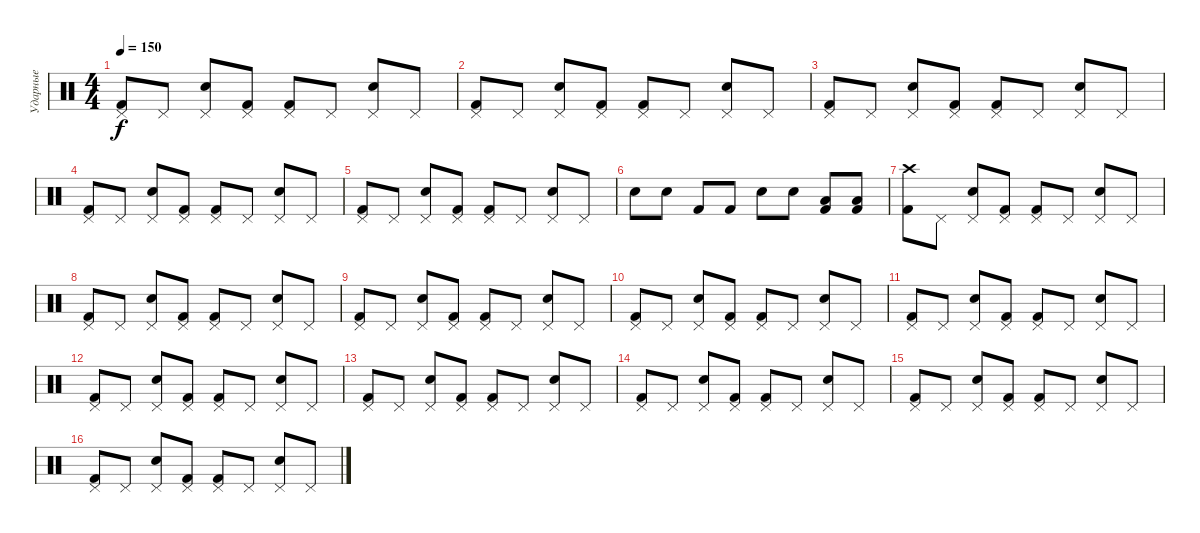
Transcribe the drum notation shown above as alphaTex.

\track ("Ударные" "Ударные") {instrument percussion}
\staff {score}
\articulation defaults
\ts (4 4)
\tempo 150
\clef neutral
\ks c
("Pedal Hi-Hat (hit)" "Kick (hit) 2").8{dy f} "Pedal Hi-Hat (hit)".8 ("Pedal Hi-Hat (hit)" "Snare (hit) 2").8 ("Pedal Hi-Hat (hit)" "Kick (hit) 2").8 ("Pedal Hi-Hat (hit)" "Kick (hit) 2").8 "Pedal Hi-Hat (hit)".8 ("Pedal Hi-Hat (hit)" "Snare (hit) 2").8 "Pedal Hi-Hat (hit)".8 |
("Pedal Hi-Hat (hit)" "Kick (hit) 2").8 "Pedal Hi-Hat (hit)".8 ("Pedal Hi-Hat (hit)" "Snare (hit) 2").8 ("Pedal Hi-Hat (hit)" "Kick (hit) 2").8 ("Pedal Hi-Hat (hit)" "Kick (hit) 2").8 "Pedal Hi-Hat (hit)".8 ("Pedal Hi-Hat (hit)" "Snare (hit) 2").8 "Pedal Hi-Hat (hit)".8 |
("Pedal Hi-Hat (hit)" "Kick (hit) 2").8 "Pedal Hi-Hat (hit)".8 ("Pedal Hi-Hat (hit)" "Snare (hit) 2").8 ("Pedal Hi-Hat (hit)" "Kick (hit) 2").8 ("Pedal Hi-Hat (hit)" "Kick (hit) 2").8 "Pedal Hi-Hat (hit)".8 ("Pedal Hi-Hat (hit)" "Snare (hit) 2").8 "Pedal Hi-Hat (hit)".8 |
("Pedal Hi-Hat (hit)" "Kick (hit) 2").8 "Pedal Hi-Hat (hit)".8 ("Pedal Hi-Hat (hit)" "Snare (hit) 2").8 ("Pedal Hi-Hat (hit)" "Kick (hit) 2").8 ("Pedal Hi-Hat (hit)" "Kick (hit) 2").8 "Pedal Hi-Hat (hit)".8 ("Pedal Hi-Hat (hit)" "Snare (hit) 2").8 "Pedal Hi-Hat (hit)".8 |
("Pedal Hi-Hat (hit)" "Kick (hit) 2").8 "Pedal Hi-Hat (hit)".8 ("Pedal Hi-Hat (hit)" "Snare (hit) 2").8 ("Pedal Hi-Hat (hit)" "Kick (hit) 2").8 ("Pedal Hi-Hat (hit)" "Kick (hit) 2").8 "Pedal Hi-Hat (hit)".8 ("Pedal Hi-Hat (hit)" "Snare (hit) 2").8 "Pedal Hi-Hat (hit)".8 |
"Snare (hit) 2".8 "Snare (hit) 2".8 "Kick (hit) 2".8 "Kick (hit) 2".8 "Snare (hit) 2".8 "Snare (hit) 2".8 ("Low Floor Tom (hit)" "Kick (hit) 2").8 ("Low Floor Tom (hit)" "Kick (hit) 2").8 |
("Crash high (hit)" "Kick (hit) 2").8{volume 10} "Pedal Hi-Hat (hit)".8 ("Pedal Hi-Hat (hit)" "Snare (hit) 2").8 ("Pedal Hi-Hat (hit)" "Kick (hit) 2").8 ("Pedal Hi-Hat (hit)" "Kick (hit) 2").8 "Pedal Hi-Hat (hit)".8 ("Pedal Hi-Hat (hit)" "Snare (hit) 2").8 "Pedal Hi-Hat (hit)".8 |
("Pedal Hi-Hat (hit)" "Kick (hit) 2").8 "Pedal Hi-Hat (hit)".8 ("Pedal Hi-Hat (hit)" "Snare (hit) 2").8 ("Pedal Hi-Hat (hit)" "Kick (hit) 2").8 ("Pedal Hi-Hat (hit)" "Kick (hit) 2").8 "Pedal Hi-Hat (hit)".8 ("Pedal Hi-Hat (hit)" "Snare (hit) 2").8 "Pedal Hi-Hat (hit)".8 |
("Pedal Hi-Hat (hit)" "Kick (hit) 2").8 "Pedal Hi-Hat (hit)".8 ("Pedal Hi-Hat (hit)" "Snare (hit) 2").8 ("Pedal Hi-Hat (hit)" "Kick (hit) 2").8 ("Pedal Hi-Hat (hit)" "Kick (hit) 2").8 "Pedal Hi-Hat (hit)".8 ("Pedal Hi-Hat (hit)" "Snare (hit) 2").8 "Pedal Hi-Hat (hit)".8 |
("Pedal Hi-Hat (hit)" "Kick (hit) 2").8 "Pedal Hi-Hat (hit)".8 ("Pedal Hi-Hat (hit)" "Snare (hit) 2").8 ("Pedal Hi-Hat (hit)" "Kick (hit) 2").8 ("Pedal Hi-Hat (hit)" "Kick (hit) 2").8 "Pedal Hi-Hat (hit)".8 ("Pedal Hi-Hat (hit)" "Snare (hit) 2").8 "Pedal Hi-Hat (hit)".8 |
("Pedal Hi-Hat (hit)" "Kick (hit) 2").8 "Pedal Hi-Hat (hit)".8 ("Pedal Hi-Hat (hit)" "Snare (hit) 2").8 ("Pedal Hi-Hat (hit)" "Kick (hit) 2").8 ("Pedal Hi-Hat (hit)" "Kick (hit) 2").8 "Pedal Hi-Hat (hit)".8 ("Pedal Hi-Hat (hit)" "Snare (hit) 2").8 "Pedal Hi-Hat (hit)".8 |
("Pedal Hi-Hat (hit)" "Kick (hit) 2").8 "Pedal Hi-Hat (hit)".8 ("Pedal Hi-Hat (hit)" "Snare (hit) 2").8 ("Pedal Hi-Hat (hit)" "Kick (hit) 2").8 ("Pedal Hi-Hat (hit)" "Kick (hit) 2").8 "Pedal Hi-Hat (hit)".8 ("Pedal Hi-Hat (hit)" "Snare (hit) 2").8 "Pedal Hi-Hat (hit)".8 |
("Pedal Hi-Hat (hit)" "Kick (hit) 2").8 "Pedal Hi-Hat (hit)".8 ("Pedal Hi-Hat (hit)" "Snare (hit) 2").8 ("Pedal Hi-Hat (hit)" "Kick (hit) 2").8 ("Pedal Hi-Hat (hit)" "Kick (hit) 2").8 "Pedal Hi-Hat (hit)".8 ("Pedal Hi-Hat (hit)" "Snare (hit) 2").8 "Pedal Hi-Hat (hit)".8 |
("Pedal Hi-Hat (hit)" "Kick (hit) 2").8 "Pedal Hi-Hat (hit)".8 ("Pedal Hi-Hat (hit)" "Snare (hit) 2").8 ("Pedal Hi-Hat (hit)" "Kick (hit) 2").8 ("Pedal Hi-Hat (hit)" "Kick (hit) 2").8 "Pedal Hi-Hat (hit)".8 ("Pedal Hi-Hat (hit)" "Snare (hit) 2").8 "Pedal Hi-Hat (hit)".8 |
("Pedal Hi-Hat (hit)" "Kick (hit) 2").8 "Pedal Hi-Hat (hit)".8 ("Pedal Hi-Hat (hit)" "Snare (hit) 2").8 ("Pedal Hi-Hat (hit)" "Kick (hit) 2").8 ("Pedal Hi-Hat (hit)" "Kick (hit) 2").8 "Pedal Hi-Hat (hit)".8 ("Pedal Hi-Hat (hit)" "Snare (hit) 2").8 "Pedal Hi-Hat (hit)".8 |
("Pedal Hi-Hat (hit)" "Kick (hit) 2").8 "Pedal Hi-Hat (hit)".8 ("Pedal Hi-Hat (hit)" "Snare (hit) 2").8 ("Pedal Hi-Hat (hit)" "Kick (hit) 2").8 ("Pedal Hi-Hat (hit)" "Kick (hit) 2").8 "Pedal Hi-Hat (hit)".8 ("Pedal Hi-Hat (hit)" "Snare (hit) 2").8 "Pedal Hi-Hat (hit)".8
